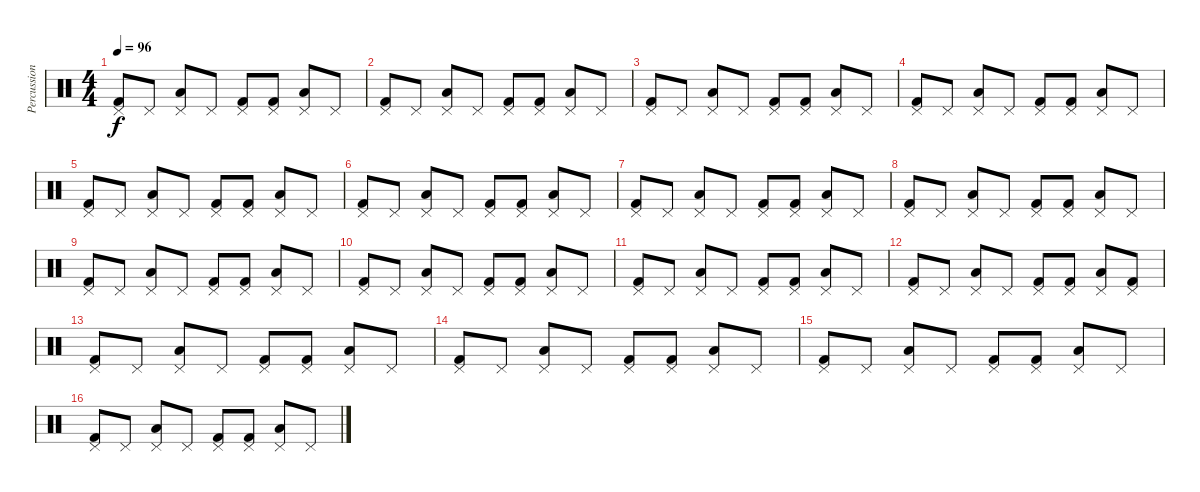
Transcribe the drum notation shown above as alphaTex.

\track ("Percussion" "Percussion") {instrument percussion}
\staff {score}
\articulation defaults
\ts (4 4)
\tempo 96
\clef neutral
\ks c
("Pedal Hi-Hat (hit)" "Kick (hit) 2").8{dy f} "Pedal Hi-Hat (hit)".8 ("Pedal Hi-Hat (hit)" "Low Floor Tom (hit)").8 "Pedal Hi-Hat (hit)".8 ("Pedal Hi-Hat (hit)" "Kick (hit) 2").8 ("Pedal Hi-Hat (hit)" "Kick (hit) 2").8 ("Pedal Hi-Hat (hit)" "Low Floor Tom (hit)").8 "Pedal Hi-Hat (hit)".8 |
("Pedal Hi-Hat (hit)" "Kick (hit) 2").8 "Pedal Hi-Hat (hit)".8 ("Pedal Hi-Hat (hit)" "Low Floor Tom (hit)").8 "Pedal Hi-Hat (hit)".8 ("Pedal Hi-Hat (hit)" "Kick (hit) 2").8 ("Pedal Hi-Hat (hit)" "Kick (hit) 2").8 ("Pedal Hi-Hat (hit)" "Low Floor Tom (hit)").8 "Pedal Hi-Hat (hit)".8 |
("Pedal Hi-Hat (hit)" "Kick (hit) 2").8 "Pedal Hi-Hat (hit)".8 ("Pedal Hi-Hat (hit)" "Low Floor Tom (hit)").8 "Pedal Hi-Hat (hit)".8 ("Pedal Hi-Hat (hit)" "Kick (hit) 2").8 ("Pedal Hi-Hat (hit)" "Kick (hit) 2").8 ("Pedal Hi-Hat (hit)" "Low Floor Tom (hit)").8 "Pedal Hi-Hat (hit)".8 |
("Pedal Hi-Hat (hit)" "Kick (hit) 2").8 "Pedal Hi-Hat (hit)".8 ("Pedal Hi-Hat (hit)" "Low Floor Tom (hit)").8 "Pedal Hi-Hat (hit)".8 ("Pedal Hi-Hat (hit)" "Kick (hit) 2").8 ("Pedal Hi-Hat (hit)" "Kick (hit) 2").8 ("Pedal Hi-Hat (hit)" "Low Floor Tom (hit)").8 "Pedal Hi-Hat (hit)".8 |
("Pedal Hi-Hat (hit)" "Kick (hit) 2").8 "Pedal Hi-Hat (hit)".8 ("Pedal Hi-Hat (hit)" "Low Floor Tom (hit)").8 "Pedal Hi-Hat (hit)".8 ("Pedal Hi-Hat (hit)" "Kick (hit) 2").8 ("Pedal Hi-Hat (hit)" "Kick (hit) 2").8 ("Pedal Hi-Hat (hit)" "Low Floor Tom (hit)").8 "Pedal Hi-Hat (hit)".8 |
("Pedal Hi-Hat (hit)" "Kick (hit) 2").8 "Pedal Hi-Hat (hit)".8 ("Pedal Hi-Hat (hit)" "Low Floor Tom (hit)").8 "Pedal Hi-Hat (hit)".8 ("Pedal Hi-Hat (hit)" "Kick (hit) 2").8 ("Pedal Hi-Hat (hit)" "Kick (hit) 2").8 ("Pedal Hi-Hat (hit)" "Low Floor Tom (hit)").8 "Pedal Hi-Hat (hit)".8 |
("Pedal Hi-Hat (hit)" "Kick (hit) 2").8 "Pedal Hi-Hat (hit)".8 ("Pedal Hi-Hat (hit)" "Low Floor Tom (hit)").8 "Pedal Hi-Hat (hit)".8 ("Pedal Hi-Hat (hit)" "Kick (hit) 2").8 ("Pedal Hi-Hat (hit)" "Kick (hit) 2").8 ("Pedal Hi-Hat (hit)" "Low Floor Tom (hit)").8 "Pedal Hi-Hat (hit)".8 |
("Pedal Hi-Hat (hit)" "Kick (hit) 2").8 "Pedal Hi-Hat (hit)".8 ("Pedal Hi-Hat (hit)" "Low Floor Tom (hit)").8 "Pedal Hi-Hat (hit)".8 ("Pedal Hi-Hat (hit)" "Kick (hit) 2").8 ("Pedal Hi-Hat (hit)" "Kick (hit) 2").8 ("Pedal Hi-Hat (hit)" "Low Floor Tom (hit)").8 "Pedal Hi-Hat (hit)".8 |
("Pedal Hi-Hat (hit)" "Kick (hit) 2").8 "Pedal Hi-Hat (hit)".8 ("Pedal Hi-Hat (hit)" "Low Floor Tom (hit)").8 "Pedal Hi-Hat (hit)".8 ("Pedal Hi-Hat (hit)" "Kick (hit) 2").8 ("Pedal Hi-Hat (hit)" "Kick (hit) 2").8 ("Pedal Hi-Hat (hit)" "Low Floor Tom (hit)").8 "Pedal Hi-Hat (hit)".8 |
("Pedal Hi-Hat (hit)" "Kick (hit) 2").8 "Pedal Hi-Hat (hit)".8 ("Pedal Hi-Hat (hit)" "Low Floor Tom (hit)").8 "Pedal Hi-Hat (hit)".8 ("Pedal Hi-Hat (hit)" "Kick (hit) 2").8 ("Pedal Hi-Hat (hit)" "Kick (hit) 2").8 ("Pedal Hi-Hat (hit)" "Low Floor Tom (hit)").8 "Pedal Hi-Hat (hit)".8 |
("Pedal Hi-Hat (hit)" "Kick (hit) 2").8 "Pedal Hi-Hat (hit)".8 ("Pedal Hi-Hat (hit)" "Low Floor Tom (hit)").8 "Pedal Hi-Hat (hit)".8 ("Pedal Hi-Hat (hit)" "Kick (hit) 2").8 ("Pedal Hi-Hat (hit)" "Kick (hit) 2").8 ("Pedal Hi-Hat (hit)" "Low Floor Tom (hit)").8 "Pedal Hi-Hat (hit)".8 |
("Pedal Hi-Hat (hit)" "Kick (hit) 2").8 "Pedal Hi-Hat (hit)".8 ("Pedal Hi-Hat (hit)" "Low Floor Tom (hit)").8 "Pedal Hi-Hat (hit)".8 ("Pedal Hi-Hat (hit)" "Kick (hit) 2").8 ("Pedal Hi-Hat (hit)" "Kick (hit) 2").8 ("Pedal Hi-Hat (hit)" "Low Floor Tom (hit)").8 ("Pedal Hi-Hat (hit)" "Kick (hit) 2").8 |
("Pedal Hi-Hat (hit)" "Kick (hit) 2").8 "Pedal Hi-Hat (hit)".8 ("Pedal Hi-Hat (hit)" "Low Floor Tom (hit)").8 "Pedal Hi-Hat (hit)".8 ("Pedal Hi-Hat (hit)" "Kick (hit) 2").8 ("Pedal Hi-Hat (hit)" "Kick (hit) 2").8 ("Pedal Hi-Hat (hit)" "Low Floor Tom (hit)").8 "Pedal Hi-Hat (hit)".8 |
("Pedal Hi-Hat (hit)" "Kick (hit) 2").8 "Pedal Hi-Hat (hit)".8 ("Pedal Hi-Hat (hit)" "Low Floor Tom (hit)").8 "Pedal Hi-Hat (hit)".8 ("Pedal Hi-Hat (hit)" "Kick (hit) 2").8 ("Pedal Hi-Hat (hit)" "Kick (hit) 2").8 ("Pedal Hi-Hat (hit)" "Low Floor Tom (hit)").8 "Pedal Hi-Hat (hit)".8 |
("Pedal Hi-Hat (hit)" "Kick (hit) 2").8 "Pedal Hi-Hat (hit)".8 ("Pedal Hi-Hat (hit)" "Low Floor Tom (hit)").8 "Pedal Hi-Hat (hit)".8 ("Pedal Hi-Hat (hit)" "Kick (hit) 2").8 ("Pedal Hi-Hat (hit)" "Kick (hit) 2").8 ("Pedal Hi-Hat (hit)" "Low Floor Tom (hit)").8 "Pedal Hi-Hat (hit)".8 |
("Pedal Hi-Hat (hit)" "Kick (hit) 2").8 "Pedal Hi-Hat (hit)".8 ("Pedal Hi-Hat (hit)" "Low Floor Tom (hit)").8 "Pedal Hi-Hat (hit)".8 ("Pedal Hi-Hat (hit)" "Kick (hit) 2").8 ("Pedal Hi-Hat (hit)" "Kick (hit) 2").8 ("Pedal Hi-Hat (hit)" "Low Floor Tom (hit)").8 "Pedal Hi-Hat (hit)".8
